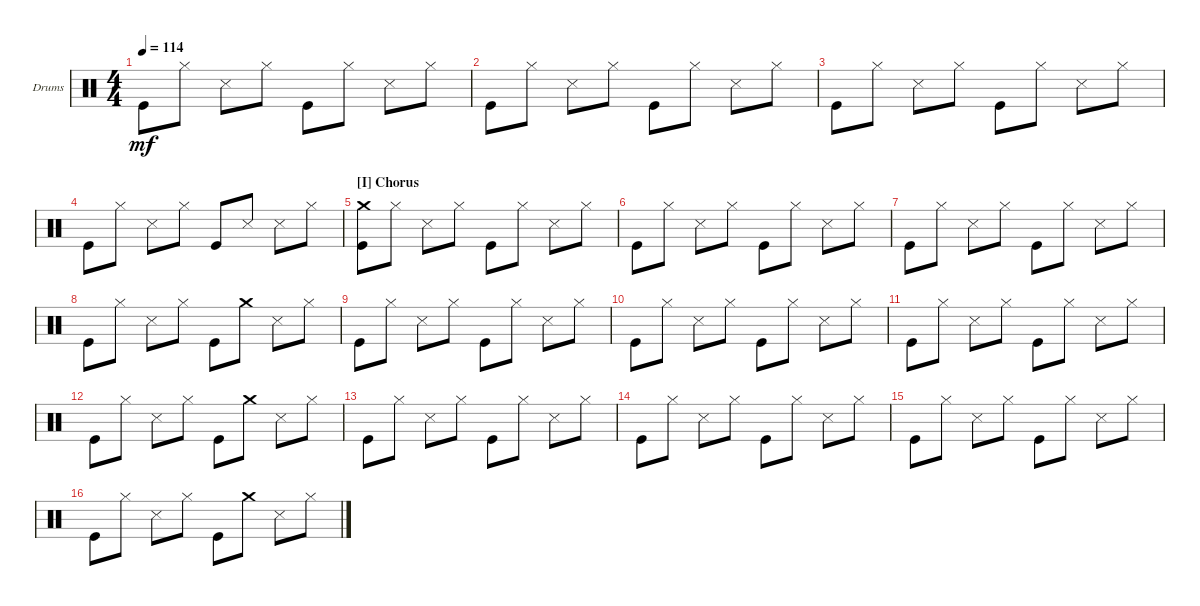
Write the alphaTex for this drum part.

\defaultSystemsLayout 4
\bracketExtendMode groupsimilarinstruments
\firstSystemTrackNameOrientation horizontal
\otherSystemsTrackNameOrientation horizontal
\track ("Drumkit" "Drums") {instrument percussion}
\staff {score}
\articulation defaults
\ts (4 4)
\tempo 114
\clef neutral
\ks c "Kick (hit)".8{dy mf} "Hi-Hat (closed)".8 "Snare (side stick) 3".8 "Hi-Hat (closed)".8 "Kick (hit)".8 "Hi-Hat (closed)".8 "Snare (side stick) 3".8 "Hi-Hat (closed)".8
|
"Kick (hit)".8 "Hi-Hat (closed)".8 "Snare (side stick) 3".8 "Hi-Hat (closed)".8 "Kick (hit)".8 "Hi-Hat (closed)".8 "Snare (side stick) 3".8 "Hi-Hat (closed)".8 |
"Kick (hit)".8 "Hi-Hat (closed)".8 "Snare (side stick) 3".8 "Hi-Hat (closed)".8 "Kick (hit)".8 "Hi-Hat (closed)".8 "Snare (side stick) 3".8 "Hi-Hat (closed)".8 |
"Kick (hit)".8 "Hi-Hat (closed)".8 "Snare (side stick) 3".8 "Hi-Hat (closed)".8 "Kick (hit)".8 "Snare (side stick) 3".8 "Snare (side stick) 3".8 "Hi-Hat (closed)".8 |
\section ("I" "Chorus")
("Kick (hit)" "Crash medium (hit)").8 "Hi-Hat (closed)".8 "Snare (side stick) 3".8 "Hi-Hat (closed)".8 "Kick (hit)".8 "Hi-Hat (closed)".8 "Snare (side stick) 3".8 "Hi-Hat (closed)".8 |
"Kick (hit)".8 "Hi-Hat (closed)".8 "Snare (side stick) 3".8 "Hi-Hat (closed)".8 "Kick (hit)".8 "Hi-Hat (closed)".8 "Snare (side stick) 3".8 "Hi-Hat (closed)".8 |
"Kick (hit)".8 "Hi-Hat (closed)".8 "Snare (side stick) 3".8 "Hi-Hat (closed)".8 "Kick (hit)".8 "Hi-Hat (closed)".8 "Snare (side stick) 3".8 "Hi-Hat (closed)".8 |
"Kick (hit)".8 "Hi-Hat (closed)".8 "Snare (side stick) 3".8 "Hi-Hat (closed)".8 "Kick (hit)".8 "Crash medium (hit)".8 "Snare (side stick) 3".8 "Hi-Hat (closed)".8 |
"Kick (hit)".8 "Hi-Hat (closed)".8 "Snare (side stick) 3".8 "Hi-Hat (closed)".8 "Kick (hit)".8 "Hi-Hat (closed)".8 "Snare (side stick) 3".8 "Hi-Hat (closed)".8 |
"Kick (hit)".8 "Hi-Hat (closed)".8 "Snare (side stick) 3".8 "Hi-Hat (closed)".8 "Kick (hit)".8 "Hi-Hat (closed)".8 "Snare (side stick) 3".8 "Hi-Hat (closed)".8 |
"Kick (hit)".8 "Hi-Hat (closed)".8 "Snare (side stick) 3".8 "Hi-Hat (closed)".8 "Kick (hit)".8 "Hi-Hat (closed)".8 "Snare (side stick) 3".8 "Hi-Hat (closed)".8 |
"Kick (hit)".8 "Hi-Hat (closed)".8 "Snare (side stick) 3".8 "Hi-Hat (closed)".8 "Kick (hit)".8 "Crash medium (hit)".8 "Snare (side stick) 3".8 "Hi-Hat (closed)".8 |
"Kick (hit)".8 "Hi-Hat (closed)".8 "Snare (side stick) 3".8 "Hi-Hat (closed)".8 "Kick (hit)".8 "Hi-Hat (closed)".8 "Snare (side stick) 3".8 "Hi-Hat (closed)".8 |
"Kick (hit)".8 "Hi-Hat (closed)".8 "Snare (side stick) 3".8 "Hi-Hat (closed)".8 "Kick (hit)".8 "Hi-Hat (closed)".8 "Snare (side stick) 3".8 "Hi-Hat (closed)".8 |
"Kick (hit)".8 "Hi-Hat (closed)".8 "Snare (side stick) 3".8 "Hi-Hat (closed)".8 "Kick (hit)".8 "Hi-Hat (closed)".8 "Snare (side stick) 3".8 "Hi-Hat (closed)".8 |
"Kick (hit)".8 "Hi-Hat (closed)".8 "Snare (side stick) 3".8 "Hi-Hat (closed)".8 "Kick (hit)".8 "Crash medium (hit)".8 "Snare (side stick) 3".8 "Hi-Hat (closed)".8
